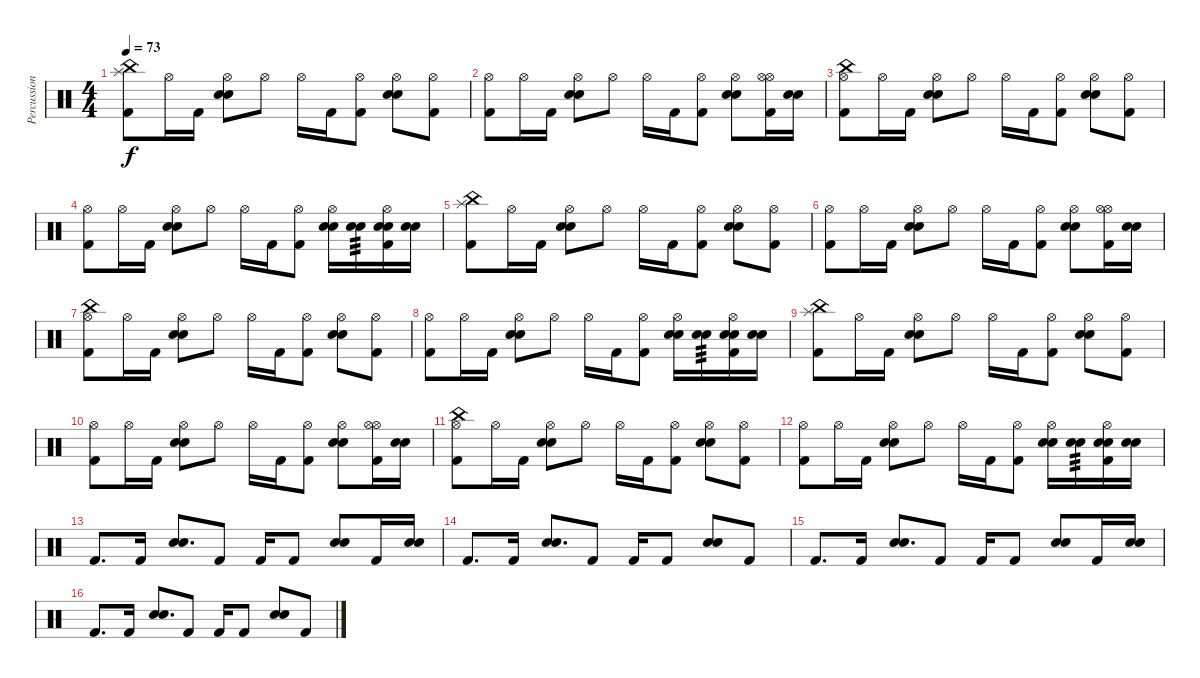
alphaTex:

\track ("Percussion" "Percussion") {instrument percussion}
\staff {score}
\articulation defaults
\ts (4 4)
\tempo 73
\clef neutral
\ks c
("Kick (hit) 2" "China (hit)" "Splash (hit)").8{dy f} "Hi-Hat (open)".16 "Kick (hit) 2".16 ("Electric Snare (hit)" "Electric Snare (hit)" "Hi-Hat (open)").8 "Hi-Hat (open)".8 "Hi-Hat (open)".16 "Kick (hit) 2".16 ("Kick (hit) 2" "Hi-Hat (open)").8 ("Electric Snare (hit)" "Electric Snare (hit)" "Hi-Hat (open)").8 ("Kick (hit) 2" "Hi-Hat (open)").8 |
("Kick (hit) 2" "Hi-Hat (open)").8 "Hi-Hat (open)".16 "Kick (hit) 2".16 ("Electric Snare (hit)" "Electric Snare (hit)" "Hi-Hat (open)").8 "Hi-Hat (open)".8 "Hi-Hat (open)".16 "Kick (hit) 2".16 ("Kick (hit) 2" "Hi-Hat (open)").8 ("Electric Snare (hit)" "Electric Snare (hit)" "Hi-Hat (open)").8 ("Kick (hit) 2" "Hi-Hat (open)" "Hi-Hat (open)").16 ("Electric Snare (hit)" "Electric Snare (hit)").16 |
("Kick (hit) 2" "China (hit)" "Hi-Hat (open)").8 "Hi-Hat (open)".16 "Kick (hit) 2".16 ("Electric Snare (hit)" "Electric Snare (hit)" "Hi-Hat (open)").8 "Hi-Hat (open)".8 "Hi-Hat (open)".16 "Kick (hit) 2".16 ("Kick (hit) 2" "Hi-Hat (open)").8 ("Electric Snare (hit)" "Electric Snare (hit)" "Hi-Hat (open)").8 ("Kick (hit) 2" "Hi-Hat (open)").8 |
("Kick (hit) 2" "Hi-Hat (open)").8 "Hi-Hat (open)".16 "Kick (hit) 2".16 ("Electric Snare (hit)" "Electric Snare (hit)" "Hi-Hat (open)").8 "Hi-Hat (open)".8 "Hi-Hat (open)".16 "Kick (hit) 2".16 ("Kick (hit) 2" "Hi-Hat (open)").8 ("Electric Snare (hit)" "Electric Snare (hit)" "Hi-Hat (open)").16 ("Electric Snare (hit)" "Electric Snare (hit)").16{tp 3} ("Kick (hit) 2" "Electric Snare (hit)" "Hi-Hat (open)" "Electric Snare (hit)").16 ("Electric Snare (hit)" "Electric Snare (hit)").16 |
("Kick (hit) 2" "China (hit)" "Splash (hit)").8 "Hi-Hat (open)".16 "Kick (hit) 2".16 ("Electric Snare (hit)" "Electric Snare (hit)" "Hi-Hat (open)").8 "Hi-Hat (open)".8 "Hi-Hat (open)".16 "Kick (hit) 2".16 ("Kick (hit) 2" "Hi-Hat (open)").8 ("Electric Snare (hit)" "Electric Snare (hit)" "Hi-Hat (open)").8 ("Kick (hit) 2" "Hi-Hat (open)").8 |
("Kick (hit) 2" "Hi-Hat (open)").8 "Hi-Hat (open)".16 "Kick (hit) 2".16 ("Electric Snare (hit)" "Electric Snare (hit)" "Hi-Hat (open)").8 "Hi-Hat (open)".8 "Hi-Hat (open)".16 "Kick (hit) 2".16 ("Kick (hit) 2" "Hi-Hat (open)").8 ("Electric Snare (hit)" "Electric Snare (hit)" "Hi-Hat (open)").8 ("Kick (hit) 2" "Hi-Hat (open)" "Hi-Hat (open)").16 ("Electric Snare (hit)" "Electric Snare (hit)").16 |
("Kick (hit) 2" "China (hit)" "Hi-Hat (open)").8 "Hi-Hat (open)".16 "Kick (hit) 2".16 ("Electric Snare (hit)" "Electric Snare (hit)" "Hi-Hat (open)").8 "Hi-Hat (open)".8 "Hi-Hat (open)".16 "Kick (hit) 2".16 ("Kick (hit) 2" "Hi-Hat (open)").8 ("Electric Snare (hit)" "Electric Snare (hit)" "Hi-Hat (open)").8 ("Kick (hit) 2" "Hi-Hat (open)").8 |
("Kick (hit) 2" "Hi-Hat (open)").8 "Hi-Hat (open)".16 "Kick (hit) 2".16 ("Electric Snare (hit)" "Electric Snare (hit)" "Hi-Hat (open)").8 "Hi-Hat (open)".8 "Hi-Hat (open)".16 "Kick (hit) 2".16 ("Kick (hit) 2" "Hi-Hat (open)").8 ("Electric Snare (hit)" "Electric Snare (hit)" "Hi-Hat (open)").16 ("Electric Snare (hit)" "Electric Snare (hit)").16{tp 3} ("Kick (hit) 2" "Electric Snare (hit)" "Hi-Hat (open)" "Electric Snare (hit)").16 ("Electric Snare (hit)" "Electric Snare (hit)").16 |
("Kick (hit) 2" "China (hit)" "Splash (hit)").8 "Hi-Hat (open)".16 "Kick (hit) 2".16 ("Electric Snare (hit)" "Electric Snare (hit)" "Hi-Hat (open)").8 "Hi-Hat (open)".8 "Hi-Hat (open)".16 "Kick (hit) 2".16 ("Kick (hit) 2" "Hi-Hat (open)").8 ("Electric Snare (hit)" "Electric Snare (hit)" "Hi-Hat (open)").8 ("Kick (hit) 2" "Hi-Hat (open)").8 |
("Kick (hit) 2" "Hi-Hat (open)").8 "Hi-Hat (open)".16 "Kick (hit) 2".16 ("Electric Snare (hit)" "Electric Snare (hit)" "Hi-Hat (open)").8 "Hi-Hat (open)".8 "Hi-Hat (open)".16 "Kick (hit) 2".16 ("Kick (hit) 2" "Hi-Hat (open)").8 ("Electric Snare (hit)" "Electric Snare (hit)" "Hi-Hat (open)").8 ("Kick (hit) 2" "Hi-Hat (open)" "Hi-Hat (open)").16 ("Electric Snare (hit)" "Electric Snare (hit)").16 |
("Kick (hit) 2" "China (hit)" "Hi-Hat (open)").8 "Hi-Hat (open)".16 "Kick (hit) 2".16 ("Electric Snare (hit)" "Electric Snare (hit)" "Hi-Hat (open)").8 "Hi-Hat (open)".8 "Hi-Hat (open)".16 "Kick (hit) 2".16 ("Kick (hit) 2" "Hi-Hat (open)").8 ("Electric Snare (hit)" "Electric Snare (hit)" "Hi-Hat (open)").8 ("Kick (hit) 2" "Hi-Hat (open)").8 |
("Kick (hit) 2" "Hi-Hat (open)").8 "Hi-Hat (open)".16 "Kick (hit) 2".16 ("Electric Snare (hit)" "Electric Snare (hit)" "Hi-Hat (open)").8 "Hi-Hat (open)".8 "Hi-Hat (open)".16 "Kick (hit) 2".16 ("Kick (hit) 2" "Hi-Hat (open)").8 ("Electric Snare (hit)" "Electric Snare (hit)" "Hi-Hat (open)").16 ("Electric Snare (hit)" "Electric Snare (hit)").16{tp 3} ("Kick (hit) 2" "Electric Snare (hit)" "Hi-Hat (open)" "Electric Snare (hit)").16 ("Electric Snare (hit)" "Electric Snare (hit)").16 |
"Kick (hit) 2".8{d} "Kick (hit) 2".16 ("Electric Snare (hit)" "Electric Snare (hit)").8{d} "Kick (hit) 2".8 "Kick (hit) 2".16 "Kick (hit) 2".8 ("Electric Snare (hit)" "Electric Snare (hit)").8 "Kick (hit) 2".16 ("Electric Snare (hit)" "Electric Snare (hit)").16 |
"Kick (hit) 2".8{d} "Kick (hit) 2".16 ("Electric Snare (hit)" "Electric Snare (hit)").8{d} "Kick (hit) 2".8 "Kick (hit) 2".16 "Kick (hit) 2".8 ("Electric Snare (hit)" "Electric Snare (hit)").8 "Kick (hit) 2".8 |
"Kick (hit) 2".8{d} "Kick (hit) 2".16 ("Electric Snare (hit)" "Electric Snare (hit)").8{d} "Kick (hit) 2".8 "Kick (hit) 2".16 "Kick (hit) 2".8 ("Electric Snare (hit)" "Electric Snare (hit)").8 "Kick (hit) 2".16 ("Electric Snare (hit)" "Electric Snare (hit)").16 |
"Kick (hit) 2".8{d} "Kick (hit) 2".16 ("Electric Snare (hit)" "Electric Snare (hit)").8{d} "Kick (hit) 2".8 "Kick (hit) 2".16 "Kick (hit) 2".8 ("Electric Snare (hit)" "Electric Snare (hit)").8 "Kick (hit) 2".8
